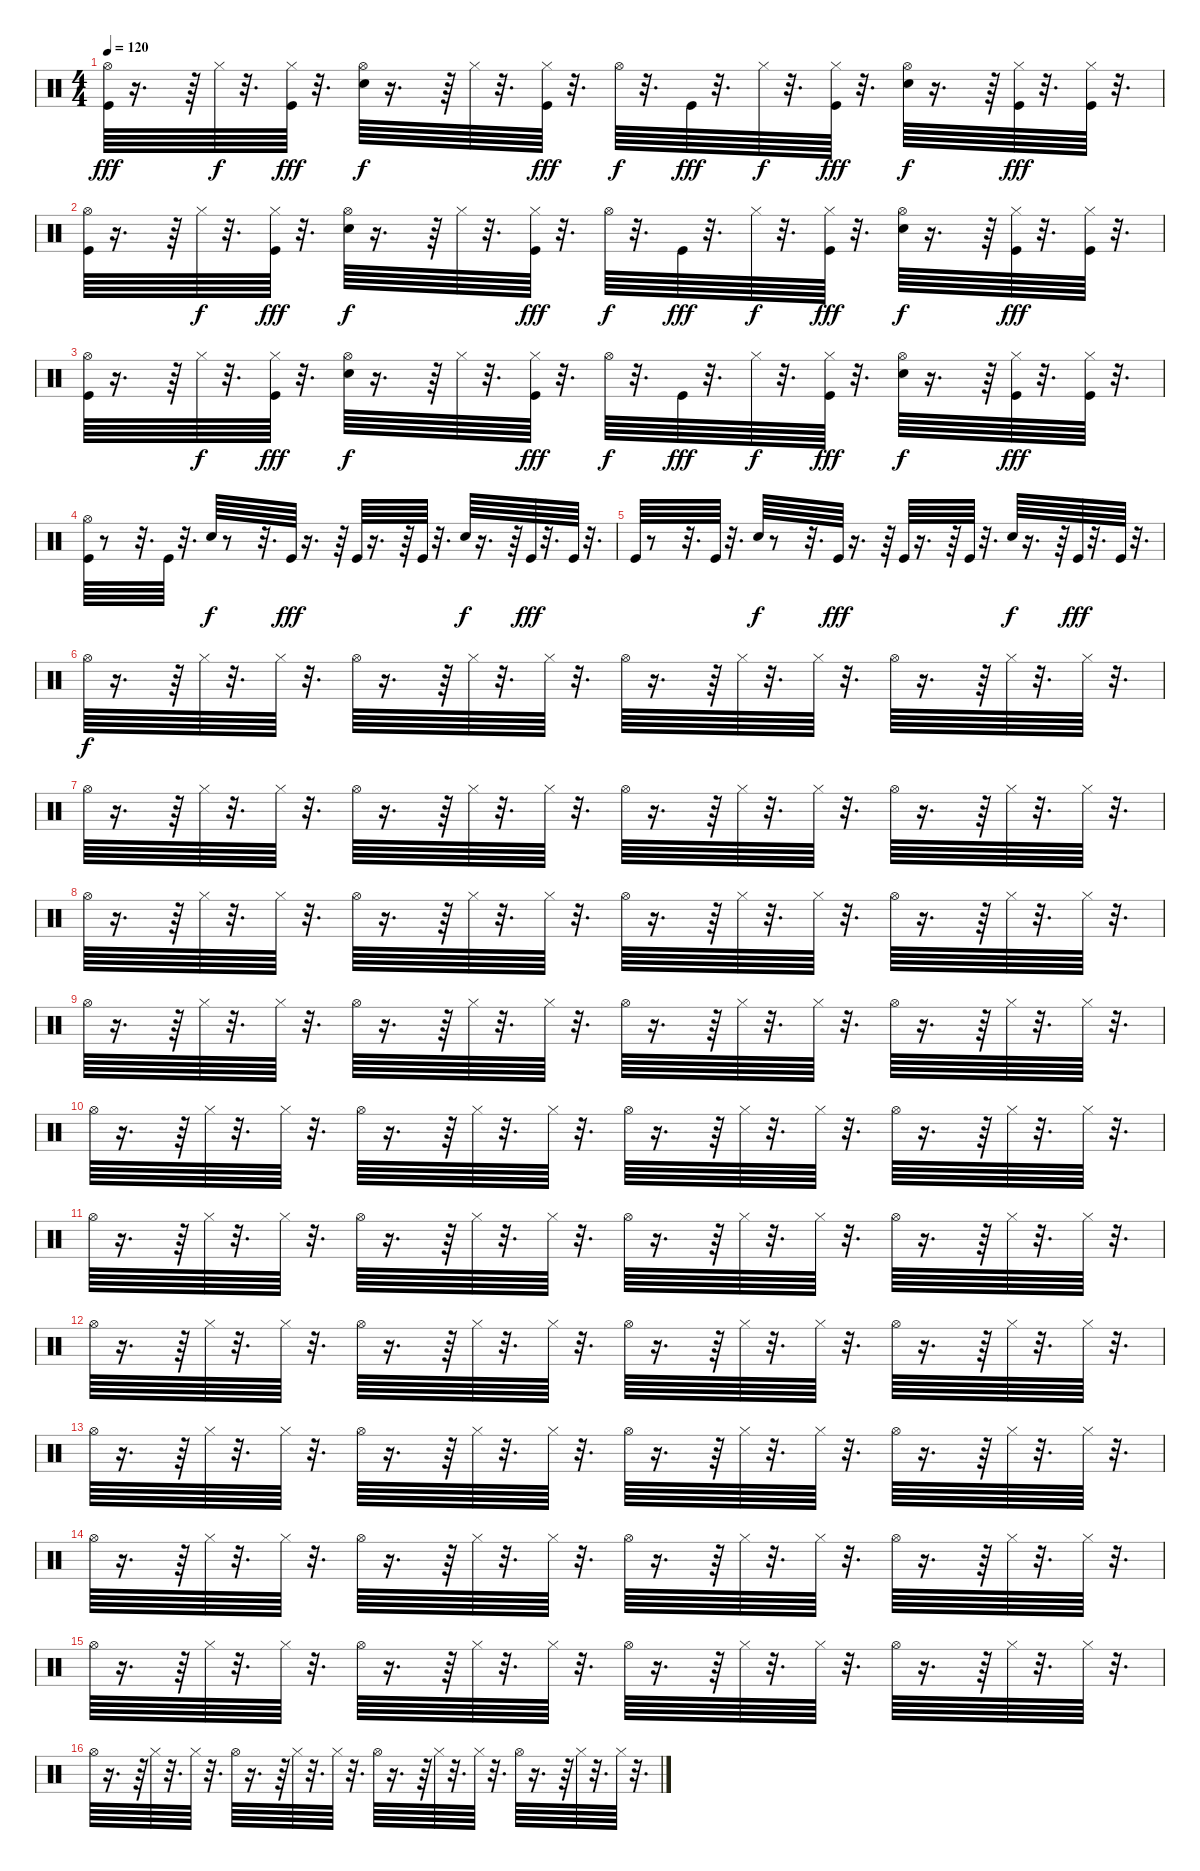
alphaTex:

\track "" {instrument percussion}
\staff {score}
\articulation defaults
\ts (4 4)
\tempo 120
\clef neutral
\ks c
("Kick (hit)" "Hi-Hat (open)").64{dy fff} r.16{d} r.64 "Hi-Hat (closed)".64{dy f} r.32{d} ("Kick (hit)" "Hi-Hat (closed)").64{dy fff} r.32{d} ("Snare (hit) 2" "Hi-Hat (open)").64{dy f} r.16{d} r.64 "Hi-Hat (closed)".64 r.32{d} ("Kick (hit)" "Hi-Hat (closed)").64{dy fff} r.32{d} "Hi-Hat (open)".64{dy f} r.32{d} "Kick (hit)".64{dy fff} r.32{d} "Hi-Hat (closed)".64{dy f} r.32{d} ("Kick (hit)" "Hi-Hat (closed)").64{dy fff} r.32{d} ("Snare (hit) 2" "Hi-Hat (open)").64{dy f} r.16{d} r.64 ("Kick (hit)" "Hi-Hat (closed)").64{dy fff} r.32{d} ("Kick (hit)" "Hi-Hat (closed)").64 r.32{d} |
("Kick (hit)" "Hi-Hat (open)").64 r.16{d} r.64 "Hi-Hat (closed)".64{dy f} r.32{d} ("Kick (hit)" "Hi-Hat (closed)").64{dy fff} r.32{d} ("Snare (hit) 2" "Hi-Hat (open)").64{dy f} r.16{d} r.64 "Hi-Hat (closed)".64 r.32{d} ("Kick (hit)" "Hi-Hat (closed)").64{dy fff} r.32{d} "Hi-Hat (open)".64{dy f} r.32{d} "Kick (hit)".64{dy fff} r.32{d} "Hi-Hat (closed)".64{dy f} r.32{d} ("Kick (hit)" "Hi-Hat (closed)").64{dy fff} r.32{d} ("Snare (hit) 2" "Hi-Hat (open)").64{dy f} r.16{d} r.64 ("Kick (hit)" "Hi-Hat (closed)").64{dy fff} r.32{d} ("Kick (hit)" "Hi-Hat (closed)").64 r.32{d} |
("Kick (hit)" "Hi-Hat (open)").64 r.16{d} r.64 "Hi-Hat (closed)".64{dy f} r.32{d} ("Kick (hit)" "Hi-Hat (closed)").64{dy fff} r.32{d} ("Snare (hit) 2" "Hi-Hat (open)").64{dy f} r.16{d} r.64 "Hi-Hat (closed)".64 r.32{d} ("Kick (hit)" "Hi-Hat (closed)").64{dy fff} r.32{d} "Hi-Hat (open)".64{dy f} r.32{d} "Kick (hit)".64{dy fff} r.32{d} "Hi-Hat (closed)".64{dy f} r.32{d} ("Kick (hit)" "Hi-Hat (closed)").64{dy fff} r.32{d} ("Snare (hit) 2" "Hi-Hat (open)").64{dy f} r.16{d} r.64 ("Kick (hit)" "Hi-Hat (closed)").64{dy fff} r.32{d} ("Kick (hit)" "Hi-Hat (closed)").64 r.32{d} |
("Kick (hit)" "Hi-Hat (open)").64 r.8 r.32{d} "Kick (hit)".64 r.32{d} "Snare (hit) 2".64{dy f} r.8 r.32{d} "Kick (hit)".64{dy fff} r.16{d} r.64 "Kick (hit)".64 r.16{d} r.64 "Kick (hit)".64 r.32{d} "Snare (hit) 2".64{dy f} r.16{d} r.64 "Kick (hit)".64{dy fff} r.32{d} "Kick (hit)".64 r.32{d} |
"Kick (hit)".64 r.8 r.32{d} "Kick (hit)".64 r.32{d} "Snare (hit) 2".64{dy f} r.8 r.32{d} "Kick (hit)".64{dy fff} r.16{d} r.64 "Kick (hit)".64 r.16{d} r.64 "Kick (hit)".64 r.32{d} "Snare (hit) 2".64{dy f} r.16{d} r.64 "Kick (hit)".64{dy fff} r.32{d} "Kick (hit)".64 r.32{d} |
"Hi-Hat (open)".64{dy f} r.16{d} r.64 "Hi-Hat (closed)".64 r.32{d} "Hi-Hat (closed)".64 r.32{d} "Hi-Hat (open)".64 r.16{d} r.64 "Hi-Hat (closed)".64 r.32{d} "Hi-Hat (closed)".64 r.32{d} "Hi-Hat (open)".64 r.16{d} r.64 "Hi-Hat (closed)".64 r.32{d} "Hi-Hat (closed)".64 r.32{d} "Hi-Hat (open)".64 r.16{d} r.64 "Hi-Hat (closed)".64 r.32{d} "Hi-Hat (closed)".64 r.32{d} |
"Hi-Hat (open)".64 r.16{d} r.64 "Hi-Hat (closed)".64 r.32{d} "Hi-Hat (closed)".64 r.32{d} "Hi-Hat (open)".64 r.16{d} r.64 "Hi-Hat (closed)".64 r.32{d} "Hi-Hat (closed)".64 r.32{d} "Hi-Hat (open)".64 r.16{d} r.64 "Hi-Hat (closed)".64 r.32{d} "Hi-Hat (closed)".64 r.32{d} "Hi-Hat (open)".64 r.16{d} r.64 "Hi-Hat (closed)".64 r.32{d} "Hi-Hat (closed)".64 r.32{d} |
"Hi-Hat (open)".64 r.16{d} r.64 "Hi-Hat (closed)".64 r.32{d} "Hi-Hat (closed)".64 r.32{d} "Hi-Hat (open)".64 r.16{d} r.64 "Hi-Hat (closed)".64 r.32{d} "Hi-Hat (closed)".64 r.32{d} "Hi-Hat (open)".64 r.16{d} r.64 "Hi-Hat (closed)".64 r.32{d} "Hi-Hat (closed)".64 r.32{d} "Hi-Hat (open)".64 r.16{d} r.64 "Hi-Hat (closed)".64 r.32{d} "Hi-Hat (closed)".64 r.32{d} |
"Hi-Hat (open)".64 r.16{d} r.64 "Hi-Hat (closed)".64 r.32{d} "Hi-Hat (closed)".64 r.32{d} "Hi-Hat (open)".64 r.16{d} r.64 "Hi-Hat (closed)".64 r.32{d} "Hi-Hat (closed)".64 r.32{d} "Hi-Hat (open)".64 r.16{d} r.64 "Hi-Hat (closed)".64 r.32{d} "Hi-Hat (closed)".64 r.32{d} "Hi-Hat (open)".64 r.16{d} r.64 "Hi-Hat (closed)".64 r.32{d} "Hi-Hat (closed)".64 r.32{d} |
"Hi-Hat (open)".64 r.16{d} r.64 "Hi-Hat (closed)".64 r.32{d} "Hi-Hat (closed)".64 r.32{d} "Hi-Hat (open)".64 r.16{d} r.64 "Hi-Hat (closed)".64 r.32{d} "Hi-Hat (closed)".64 r.32{d} "Hi-Hat (open)".64 r.16{d} r.64 "Hi-Hat (closed)".64 r.32{d} "Hi-Hat (closed)".64 r.32{d} "Hi-Hat (open)".64 r.16{d} r.64 "Hi-Hat (closed)".64 r.32{d} "Hi-Hat (closed)".64 r.32{d} |
"Hi-Hat (open)".64 r.16{d} r.64 "Hi-Hat (closed)".64 r.32{d} "Hi-Hat (closed)".64 r.32{d} "Hi-Hat (open)".64 r.16{d} r.64 "Hi-Hat (closed)".64 r.32{d} "Hi-Hat (closed)".64 r.32{d} "Hi-Hat (open)".64 r.16{d} r.64 "Hi-Hat (closed)".64 r.32{d} "Hi-Hat (closed)".64 r.32{d} "Hi-Hat (open)".64 r.16{d} r.64 "Hi-Hat (closed)".64 r.32{d} "Hi-Hat (closed)".64 r.32{d} |
"Hi-Hat (open)".64 r.16{d} r.64 "Hi-Hat (closed)".64 r.32{d} "Hi-Hat (closed)".64 r.32{d} "Hi-Hat (open)".64 r.16{d} r.64 "Hi-Hat (closed)".64 r.32{d} "Hi-Hat (closed)".64 r.32{d} "Hi-Hat (open)".64 r.16{d} r.64 "Hi-Hat (closed)".64 r.32{d} "Hi-Hat (closed)".64 r.32{d} "Hi-Hat (open)".64 r.16{d} r.64 "Hi-Hat (closed)".64 r.32{d} "Hi-Hat (closed)".64 r.32{d} |
"Hi-Hat (open)".64 r.16{d} r.64 "Hi-Hat (closed)".64 r.32{d} "Hi-Hat (closed)".64 r.32{d} "Hi-Hat (open)".64 r.16{d} r.64 "Hi-Hat (closed)".64 r.32{d} "Hi-Hat (closed)".64 r.32{d} "Hi-Hat (open)".64 r.16{d} r.64 "Hi-Hat (closed)".64 r.32{d} "Hi-Hat (closed)".64 r.32{d} "Hi-Hat (open)".64 r.16{d} r.64 "Hi-Hat (closed)".64 r.32{d} "Hi-Hat (closed)".64 r.32{d} |
"Hi-Hat (open)".64 r.16{d} r.64 "Hi-Hat (closed)".64 r.32{d} "Hi-Hat (closed)".64 r.32{d} "Hi-Hat (open)".64 r.16{d} r.64 "Hi-Hat (closed)".64 r.32{d} "Hi-Hat (closed)".64 r.32{d} "Hi-Hat (open)".64 r.16{d} r.64 "Hi-Hat (closed)".64 r.32{d} "Hi-Hat (closed)".64 r.32{d} "Hi-Hat (open)".64 r.16{d} r.64 "Hi-Hat (closed)".64 r.32{d} "Hi-Hat (closed)".64 r.32{d} |
"Hi-Hat (open)".64 r.16{d} r.64 "Hi-Hat (closed)".64 r.32{d} "Hi-Hat (closed)".64 r.32{d} "Hi-Hat (open)".64 r.16{d} r.64 "Hi-Hat (closed)".64 r.32{d} "Hi-Hat (closed)".64 r.32{d} "Hi-Hat (open)".64 r.16{d} r.64 "Hi-Hat (closed)".64 r.32{d} "Hi-Hat (closed)".64 r.32{d} "Hi-Hat (open)".64 r.16{d} r.64 "Hi-Hat (closed)".64 r.32{d} "Hi-Hat (closed)".64 r.32{d} |
"Hi-Hat (open)".64 r.16{d} r.64 "Hi-Hat (closed)".64 r.32{d} "Hi-Hat (closed)".64 r.32{d} "Hi-Hat (open)".64 r.16{d} r.64 "Hi-Hat (closed)".64 r.32{d} "Hi-Hat (closed)".64 r.32{d} "Hi-Hat (open)".64 r.16{d} r.64 "Hi-Hat (closed)".64 r.32{d} "Hi-Hat (closed)".64 r.32{d} "Hi-Hat (open)".64 r.16{d} r.64 "Hi-Hat (closed)".64 r.32{d} "Hi-Hat (closed)".64 r.32{d}
